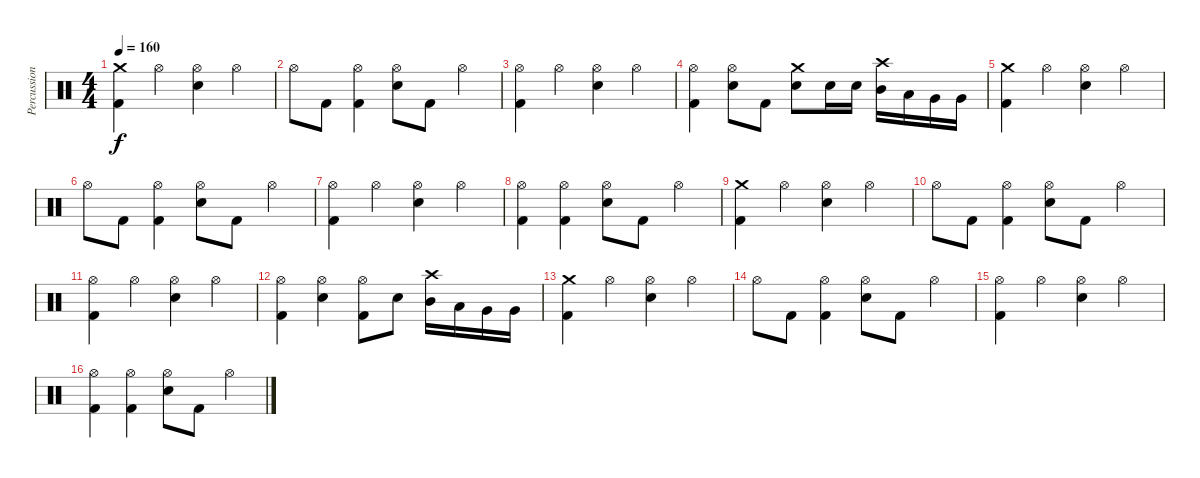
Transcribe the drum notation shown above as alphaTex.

\track ("Percussion" "Percussion") {instrument percussion}
\staff {score}
\articulation defaults
\ts (4 4)
\tempo 160
\clef neutral
\ks c
("Crash medium (hit)" "Kick (hit) 2").4{dy f} "Hi-Hat (open)".4 ("Hi-Hat (open)" "Snare (hit) 2").4 "Hi-Hat (open)".4 |
"Hi-Hat (open)".8 "Kick (hit) 2".8 ("Hi-Hat (open)" "Kick (hit) 2").4 ("Hi-Hat (open)" "Snare (hit) 2").8 "Kick (hit) 2".8 "Hi-Hat (open)".4 |
("Hi-Hat (open)" "Kick (hit) 2").4 "Hi-Hat (open)".4 ("Hi-Hat (open)" "Snare (hit) 2").4 "Hi-Hat (open)".4 |
("Hi-Hat (open)" "Kick (hit) 2").4 ("Hi-Hat (open)" "Snare (hit) 2").8 "Kick (hit) 2".8 ("Crash medium (hit)" "Snare (hit) 2").8 "Snare (hit) 2".16 "Snare (hit) 2".16 ("Crash high (hit)" "Mid Tom (hit)").16 "Low Tom (hit)".16 "Very Low Tom (hit)".16 "Very Low Tom (hit)".16 |
("Crash medium (hit)" "Kick (hit) 2").4 "Hi-Hat (open)".4 ("Hi-Hat (open)" "Snare (hit) 2").4 "Hi-Hat (open)".4 |
"Hi-Hat (open)".8 "Kick (hit) 2".8 ("Hi-Hat (open)" "Kick (hit) 2").4 ("Hi-Hat (open)" "Snare (hit) 2").8 "Kick (hit) 2".8 "Hi-Hat (open)".4 |
("Hi-Hat (open)" "Kick (hit) 2").4 "Hi-Hat (open)".4 ("Hi-Hat (open)" "Snare (hit) 2").4 "Hi-Hat (open)".4 |
("Hi-Hat (open)" "Kick (hit) 2").4 ("Hi-Hat (open)" "Kick (hit) 2").4 ("Hi-Hat (open)" "Snare (hit) 2").8 "Kick (hit) 2".8 "Hi-Hat (open)".4 |
("Crash medium (hit)" "Kick (hit) 2").4 "Hi-Hat (open)".4 ("Hi-Hat (open)" "Snare (hit) 2").4 "Hi-Hat (open)".4 |
"Hi-Hat (open)".8 "Kick (hit) 2".8 ("Hi-Hat (open)" "Kick (hit) 2").4 ("Hi-Hat (open)" "Snare (hit) 2").8 "Kick (hit) 2".8 "Hi-Hat (open)".4 |
("Hi-Hat (open)" "Kick (hit) 2").4 "Hi-Hat (open)".4 ("Hi-Hat (open)" "Snare (hit) 2").4 "Hi-Hat (open)".4 |
("Hi-Hat (open)" "Kick (hit) 2").4 ("Hi-Hat (open)" "Snare (hit) 2").4 ("Hi-Hat (open)" "Kick (hit) 2").8 "Snare (hit) 2".8 ("Crash high (hit)" "Mid Tom (hit)").16 "Low Tom (hit)".16 "Very Low Tom (hit)".16 "Very Low Tom (hit)".16 |
("Crash medium (hit)" "Kick (hit) 2").4 "Hi-Hat (open)".4 ("Hi-Hat (open)" "Snare (hit) 2").4 "Hi-Hat (open)".4 |
"Hi-Hat (open)".8 "Kick (hit) 2".8 ("Hi-Hat (open)" "Kick (hit) 2").4 ("Hi-Hat (open)" "Snare (hit) 2").8 "Kick (hit) 2".8 "Hi-Hat (open)".4 |
("Hi-Hat (open)" "Kick (hit) 2").4 "Hi-Hat (open)".4 ("Hi-Hat (open)" "Snare (hit) 2").4 "Hi-Hat (open)".4 |
("Hi-Hat (open)" "Kick (hit) 2").4 ("Hi-Hat (open)" "Kick (hit) 2").4 ("Hi-Hat (open)" "Snare (hit) 2").8 "Kick (hit) 2".8 "Hi-Hat (open)".4
